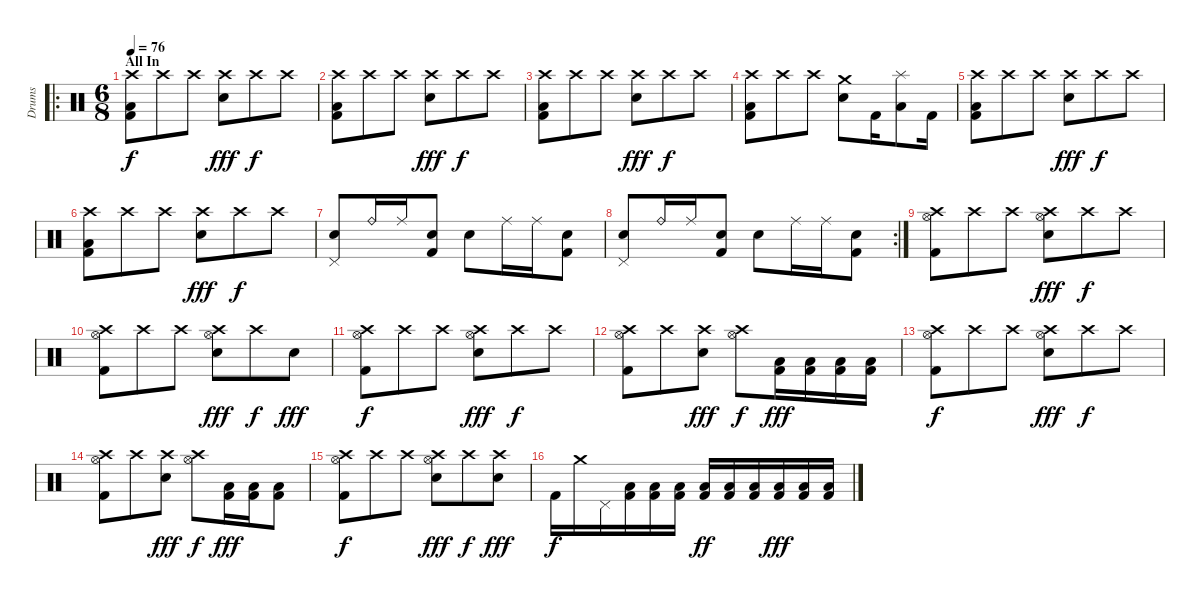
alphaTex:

\track ("Drums" "Drums") {instrument percussion}
\staff {score}
\articulation defaults
\ro
\ts (6 8)
\section ("" "All In")
\tempo 76
\clef neutral
\ks c
("Crash high (hit)" "Low Floor Tom (hit)" "Kick (hit) 2").8{dy f} "Crash high (hit)".8 "Crash high (hit)".8 ("Crash high (hit)" "Snare (hit) 2").8{dy fff} "Crash high (hit)".8{dy f} "Crash high (hit)".8 |
("Crash high (hit)" "Low Floor Tom (hit)" "Kick (hit) 2").8 "Crash high (hit)".8 "Crash high (hit)".8 ("Crash high (hit)" "Snare (hit) 2").8{dy fff} "Crash high (hit)".8{dy f} "Crash high (hit)".8 |
("Crash high (hit)" "Low Floor Tom (hit)" "Kick (hit) 2").8 "Crash high (hit)".8 "Crash high (hit)".8 ("Crash high (hit)" "Snare (hit) 2").8{dy fff} "Crash high (hit)".8{dy f} "Crash high (hit)".8 |
("Crash high (hit)" "Low Floor Tom (hit)" "Kick (hit) 2").8 "Crash high (hit)".8 "Crash high (hit)".8 ("Crash medium (hit)" "Snare (hit) 2").8 "Kick (hit) 2".16 ("Splash (hit)" "Low Tom (hit)").8 "Kick (hit) 2".16 |
("Crash high (hit)" "Low Floor Tom (hit)" "Kick (hit) 2").8 "Crash high (hit)".8 "Crash high (hit)".8 ("Crash high (hit)" "Snare (hit) 2").8{dy fff} "Crash high (hit)".8{dy f} "Crash high (hit)".8 |
("Crash high (hit)" "Low Floor Tom (hit)" "Kick (hit) 2").8 "Crash high (hit)".8 "Crash high (hit)".8 ("Crash high (hit)" "Snare (hit) 2").8{dy fff} "Crash high (hit)".8{dy f} "Crash high (hit)".8 |
("Pedal Hi-Hat (hit)" "Snare (hit) 2").8 "Ride (bell)".16 "Ride (middle)".16 ("Snare (hit) 2" "Kick (hit) 2").8 "Snare (hit) 2".8 "Ride (middle)".16 "Ride (middle)".16 ("Snare (hit) 2" "Kick (hit) 2").8 |
\rc 2
("Pedal Hi-Hat (hit)" "Snare (hit) 2").8 "Ride (bell)".16 "Ride (middle)".16 ("Snare (hit) 2" "Kick (hit) 2").8 "Snare (hit) 2".8 "Ride (middle)".16 "Ride (middle)".16 ("Snare (hit) 2" "Kick (hit) 2").8 |
("Crash high (hit)" "Hi-Hat (open)" "Kick (hit) 2").8 "Crash high (hit)".8 "Crash high (hit)".8 ("Crash high (hit)" "Hi-Hat (open)" "Snare (hit) 2").8{dy fff} "Crash high (hit)".8{dy f} "Crash high (hit)".8 |
("Crash high (hit)" "Hi-Hat (open)" "Kick (hit) 2").8 "Crash high (hit)".8 "Crash high (hit)".8 ("Crash high (hit)" "Hi-Hat (open)" "Snare (hit) 2").8{dy fff} "Crash high (hit)".8{dy f} "Snare (hit) 2".8{dy fff} |
("Crash high (hit)" "Hi-Hat (open)" "Kick (hit) 2").8{dy f} "Crash high (hit)".8 "Crash high (hit)".8 ("Crash high (hit)" "Hi-Hat (open)" "Snare (hit) 2").8{dy fff} "Crash high (hit)".8{dy f} "Crash high (hit)".8 |
("Crash high (hit)" "Hi-Hat (open)" "Kick (hit) 2").8 "Crash high (hit)".8 ("Crash high (hit)" "Snare (hit) 2").8{dy fff} ("Crash high (hit)" "Hi-Hat (open)").8{dy f} ("Low Tom (hit)" "Kick (hit) 2").16{dy fff} ("Low Tom (hit)" "Kick (hit) 2").16 ("Low Tom (hit)" "Kick (hit) 2").16 ("Low Tom (hit)" "Kick (hit) 2").16 |
("Crash high (hit)" "Hi-Hat (open)" "Kick (hit) 2").8{dy f} "Crash high (hit)".8 "Crash high (hit)".8 ("Crash high (hit)" "Hi-Hat (open)" "Snare (hit) 2").8{dy fff} "Crash high (hit)".8{dy f} "Crash high (hit)".8 |
("Crash high (hit)" "Hi-Hat (open)" "Kick (hit) 2").8 "Crash high (hit)".8 ("Crash high (hit)" "Snare (hit) 2").8{dy fff} ("Crash high (hit)" "Hi-Hat (open)").8{dy f} ("Low Tom (hit)" "Kick (hit) 2").16{dy fff} ("Low Tom (hit)" "Kick (hit) 2").16 ("Low Tom (hit)" "Kick (hit) 2").8 |
("Crash high (hit)" "Hi-Hat (open)" "Kick (hit) 2").8{dy f} "Crash high (hit)".8 "Crash high (hit)".8 ("Crash high (hit)" "Hi-Hat (open)" "Snare (hit) 2").8{dy fff} "Crash high (hit)".8{dy f} ("Crash high (hit)" "Snare (hit) 2").8{dy fff} |
"Kick (hit) 2".16{dy f} "Crash medium (hit)".16 "Pedal Hi-Hat (hit)".16 ("Low Tom (hit)" "Kick (hit) 2").16 ("Low Tom (hit)" "Kick (hit) 2").16 ("Low Tom (hit)" "Kick (hit) 2").16 ("Low Tom (hit)" "Kick (hit) 2").16{dy ff} ("Low Tom (hit)" "Kick (hit) 2").16 ("Low Tom (hit)" "Kick (hit) 2").16 ("Low Tom (hit)" "Kick (hit) 2").16{dy fff} ("Low Tom (hit)" "Kick (hit) 2").16 ("Low Tom (hit)" "Kick (hit) 2").16
